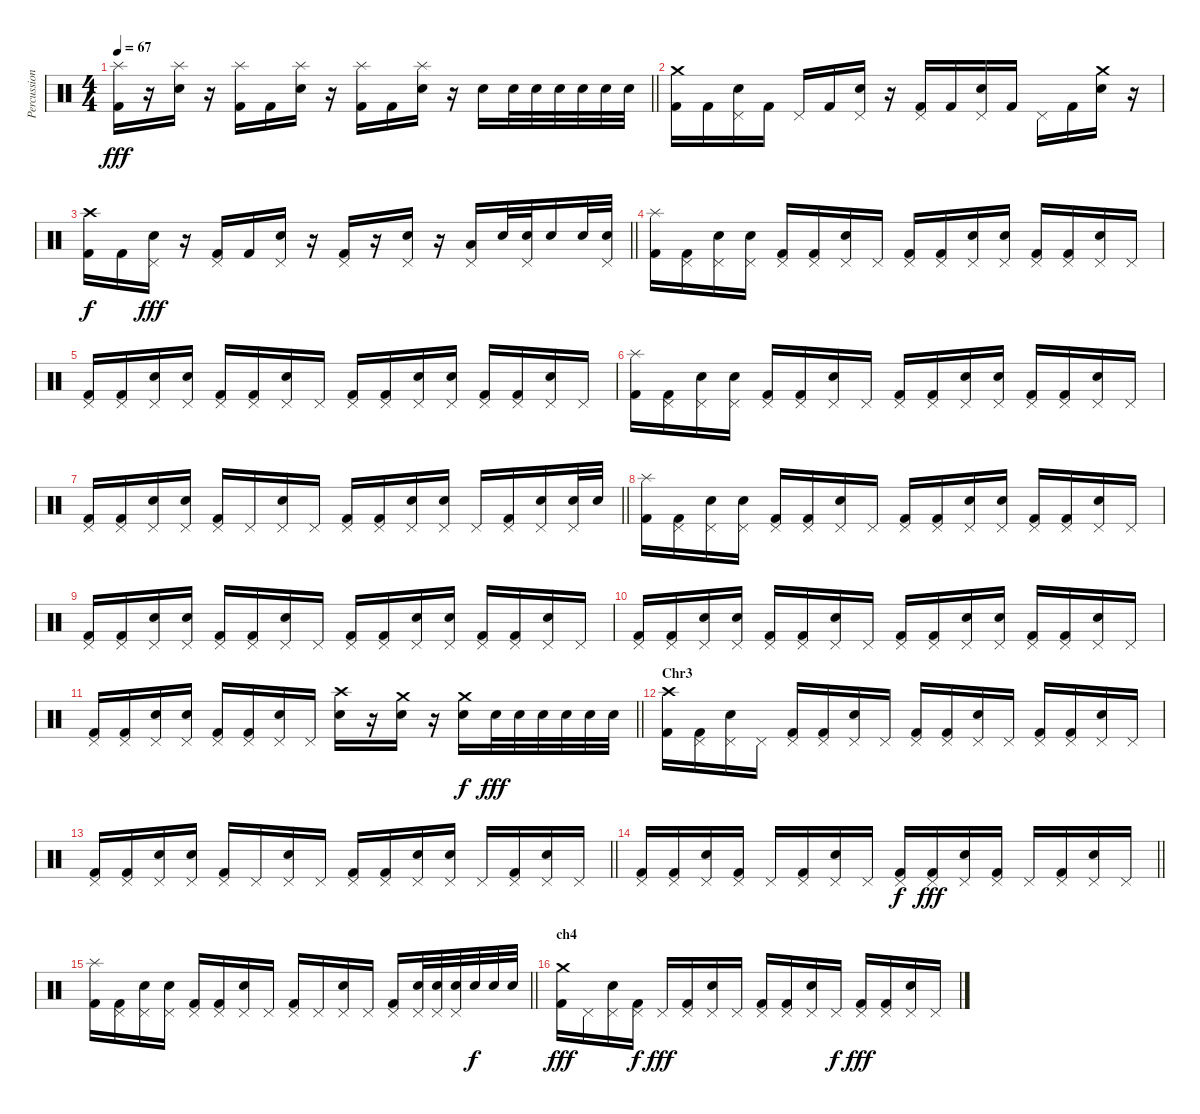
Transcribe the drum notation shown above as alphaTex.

\track ("Percussion" "Percussion") {instrument percussion}
\staff {score}
\articulation defaults
\ts (4 4)
\tempo 67
\clef neutral
\barLineRight lightlight
\ks c
("Splash (hit)" "Kick (hit) 2").16{dy fff} r.16 ("Splash (hit)" "Snare (hit) 2").16 r.16 ("Splash (hit)" "Kick (hit) 2").16 "Kick (hit) 2".16 ("Splash (hit)" "Snare (hit) 2").16 r.16 ("Splash (hit)" "Kick (hit) 2").16 "Kick (hit) 2".16 ("Splash (hit)" "Snare (hit) 2").16 r.16 "Snare (hit) 2".16 "Snare (hit) 2".32 "Snare (hit) 2".32 "Snare (hit) 2".32 "Snare (hit) 2".32 "Snare (hit) 2".32 "Snare (hit) 2".32 |
\section ("" "")
("Crash medium (hit)" "Kick (hit) 2").16 "Kick (hit) 2".16 ("Pedal Hi-Hat (hit)" "Snare (hit) 2").16 "Kick (hit) 2".16 "Pedal Hi-Hat (hit)".16 "Kick (hit) 2".16 ("Pedal Hi-Hat (hit)" "Snare (hit) 2").16 r.16 ("Pedal Hi-Hat (hit)" "Kick (hit) 2").16 "Kick (hit) 2".16 ("Pedal Hi-Hat (hit)" "Snare (hit) 2").16 "Kick (hit) 2".16 "Pedal Hi-Hat (hit)".16 "Kick (hit) 2".16 ("Crash medium (hit)" "Snare (hit) 2").16 r.16 |
\barLineRight lightlight
("Crash high (hit)" "Kick (hit) 2").16{dy f} "Kick (hit) 2".16 ("Pedal Hi-Hat (hit)" "Snare (hit) 2").16{dy fff} r.16 ("Pedal Hi-Hat (hit)" "Kick (hit) 2").16 "Kick (hit) 2".16 ("Pedal Hi-Hat (hit)" "Snare (hit) 2").16 r.16 ("Pedal Hi-Hat (hit)" "Kick (hit) 2").16 r.16 ("Pedal Hi-Hat (hit)" "Snare (hit) 2").16 r.16 ("Pedal Hi-Hat (hit)" "Low Tom (hit)").16 "Snare (hit) 2".32 ("Pedal Hi-Hat (hit)" "Snare (hit) 2").32 "Snare (hit) 2".16 "Snare (hit) 2".32 ("Pedal Hi-Hat (hit)" "Snare (hit) 2").32 |
\section ("" "")
("Splash (hit)" "Kick (hit) 2").16 ("Pedal Hi-Hat (hit)" "Kick (hit) 2").16 ("Pedal Hi-Hat (hit)" "Snare (hit) 2").16 ("Pedal Hi-Hat (hit)" "Snare (hit) 2").16 ("Pedal Hi-Hat (hit)" "Kick (hit) 2").16 ("Pedal Hi-Hat (hit)" "Kick (hit) 2").16 ("Pedal Hi-Hat (hit)" "Snare (hit) 2").16 "Pedal Hi-Hat (hit)".16 ("Pedal Hi-Hat (hit)" "Kick (hit) 2").16 ("Pedal Hi-Hat (hit)" "Kick (hit) 2").16 ("Pedal Hi-Hat (hit)" "Snare (hit) 2").16 ("Pedal Hi-Hat (hit)" "Snare (hit) 2").16 ("Pedal Hi-Hat (hit)" "Kick (hit) 2").16 ("Pedal Hi-Hat (hit)" "Kick (hit) 2").16 ("Pedal Hi-Hat (hit)" "Snare (hit) 2").16 "Pedal Hi-Hat (hit)".16 |
("Pedal Hi-Hat (hit)" "Kick (hit) 2").16 ("Pedal Hi-Hat (hit)" "Kick (hit) 2").16 ("Pedal Hi-Hat (hit)" "Snare (hit) 2").16 ("Pedal Hi-Hat (hit)" "Snare (hit) 2").16 ("Pedal Hi-Hat (hit)" "Kick (hit) 2").16 ("Pedal Hi-Hat (hit)" "Kick (hit) 2").16 ("Pedal Hi-Hat (hit)" "Snare (hit) 2").16 "Pedal Hi-Hat (hit)".16 ("Pedal Hi-Hat (hit)" "Kick (hit) 2").16 ("Pedal Hi-Hat (hit)" "Kick (hit) 2").16 ("Pedal Hi-Hat (hit)" "Snare (hit) 2").16 ("Pedal Hi-Hat (hit)" "Snare (hit) 2").16 ("Pedal Hi-Hat (hit)" "Kick (hit) 2").16 ("Pedal Hi-Hat (hit)" "Kick (hit) 2").16 ("Pedal Hi-Hat (hit)" "Snare (hit) 2").16 "Pedal Hi-Hat (hit)".16 |
("Splash (hit)" "Kick (hit) 2").16 ("Pedal Hi-Hat (hit)" "Kick (hit) 2").16 ("Pedal Hi-Hat (hit)" "Snare (hit) 2").16 ("Pedal Hi-Hat (hit)" "Snare (hit) 2").16 ("Pedal Hi-Hat (hit)" "Kick (hit) 2").16 ("Pedal Hi-Hat (hit)" "Kick (hit) 2").16 ("Pedal Hi-Hat (hit)" "Snare (hit) 2").16 "Pedal Hi-Hat (hit)".16 ("Pedal Hi-Hat (hit)" "Kick (hit) 2").16 ("Pedal Hi-Hat (hit)" "Kick (hit) 2").16 ("Pedal Hi-Hat (hit)" "Snare (hit) 2").16 ("Pedal Hi-Hat (hit)" "Snare (hit) 2").16 ("Pedal Hi-Hat (hit)" "Kick (hit) 2").16 ("Pedal Hi-Hat (hit)" "Kick (hit) 2").16 ("Pedal Hi-Hat (hit)" "Snare (hit) 2").16 "Pedal Hi-Hat (hit)".16 |
\barLineRight lightlight
("Pedal Hi-Hat (hit)" "Kick (hit) 2").16 ("Pedal Hi-Hat (hit)" "Kick (hit) 2").16 ("Pedal Hi-Hat (hit)" "Snare (hit) 2").16 ("Pedal Hi-Hat (hit)" "Snare (hit) 2").16 ("Pedal Hi-Hat (hit)" "Kick (hit) 2").16 "Pedal Hi-Hat (hit)".16 ("Pedal Hi-Hat (hit)" "Snare (hit) 2").16 "Pedal Hi-Hat (hit)".16 ("Pedal Hi-Hat (hit)" "Kick (hit) 2").16 ("Pedal Hi-Hat (hit)" "Kick (hit) 2").16 ("Pedal Hi-Hat (hit)" "Snare (hit) 2").16 ("Pedal Hi-Hat (hit)" "Snare (hit) 2").16 "Pedal Hi-Hat (hit)".16 ("Pedal Hi-Hat (hit)" "Kick (hit) 2").16 ("Pedal Hi-Hat (hit)" "Snare (hit) 2").16 ("Pedal Hi-Hat (hit)" "Snare (hit) 2").32 "Snare (hit) 2".32 |
("Splash (hit)" "Kick (hit) 2").16 ("Pedal Hi-Hat (hit)" "Kick (hit) 2").16 ("Pedal Hi-Hat (hit)" "Snare (hit) 2").16 ("Pedal Hi-Hat (hit)" "Snare (hit) 2").16 ("Pedal Hi-Hat (hit)" "Kick (hit) 2").16 ("Pedal Hi-Hat (hit)" "Kick (hit) 2").16 ("Pedal Hi-Hat (hit)" "Snare (hit) 2").16 "Pedal Hi-Hat (hit)".16 ("Pedal Hi-Hat (hit)" "Kick (hit) 2").16 ("Pedal Hi-Hat (hit)" "Kick (hit) 2").16 ("Pedal Hi-Hat (hit)" "Snare (hit) 2").16 ("Pedal Hi-Hat (hit)" "Snare (hit) 2").16 ("Pedal Hi-Hat (hit)" "Kick (hit) 2").16 ("Pedal Hi-Hat (hit)" "Kick (hit) 2").16 ("Pedal Hi-Hat (hit)" "Snare (hit) 2").16 "Pedal Hi-Hat (hit)".16 |
("Pedal Hi-Hat (hit)" "Kick (hit) 2").16 ("Pedal Hi-Hat (hit)" "Kick (hit) 2").16 ("Pedal Hi-Hat (hit)" "Snare (hit) 2").16 ("Pedal Hi-Hat (hit)" "Snare (hit) 2").16 ("Pedal Hi-Hat (hit)" "Kick (hit) 2").16 ("Pedal Hi-Hat (hit)" "Kick (hit) 2").16 ("Pedal Hi-Hat (hit)" "Snare (hit) 2").16 "Pedal Hi-Hat (hit)".16 ("Pedal Hi-Hat (hit)" "Kick (hit) 2").16 ("Pedal Hi-Hat (hit)" "Kick (hit) 2").16 ("Pedal Hi-Hat (hit)" "Snare (hit) 2").16 ("Pedal Hi-Hat (hit)" "Snare (hit) 2").16 ("Pedal Hi-Hat (hit)" "Kick (hit) 2").16 ("Pedal Hi-Hat (hit)" "Kick (hit) 2").16 ("Pedal Hi-Hat (hit)" "Snare (hit) 2").16 "Pedal Hi-Hat (hit)".16 |
("Pedal Hi-Hat (hit)" "Kick (hit) 2").16 ("Pedal Hi-Hat (hit)" "Kick (hit) 2").16 ("Pedal Hi-Hat (hit)" "Snare (hit) 2").16 ("Pedal Hi-Hat (hit)" "Snare (hit) 2").16 ("Pedal Hi-Hat (hit)" "Kick (hit) 2").16 ("Pedal Hi-Hat (hit)" "Kick (hit) 2").16 ("Pedal Hi-Hat (hit)" "Snare (hit) 2").16 "Pedal Hi-Hat (hit)".16 ("Pedal Hi-Hat (hit)" "Kick (hit) 2").16 ("Pedal Hi-Hat (hit)" "Kick (hit) 2").16 ("Pedal Hi-Hat (hit)" "Snare (hit) 2").16 ("Pedal Hi-Hat (hit)" "Snare (hit) 2").16 ("Pedal Hi-Hat (hit)" "Kick (hit) 2").16 ("Pedal Hi-Hat (hit)" "Kick (hit) 2").16 ("Pedal Hi-Hat (hit)" "Snare (hit) 2").16 "Pedal Hi-Hat (hit)".16 |
\barLineRight lightlight
("Pedal Hi-Hat (hit)" "Kick (hit) 2").16 ("Pedal Hi-Hat (hit)" "Kick (hit) 2").16 ("Pedal Hi-Hat (hit)" "Snare (hit) 2").16 ("Pedal Hi-Hat (hit)" "Snare (hit) 2").16 ("Pedal Hi-Hat (hit)" "Kick (hit) 2").16 ("Pedal Hi-Hat (hit)" "Kick (hit) 2").16 ("Pedal Hi-Hat (hit)" "Snare (hit) 2").16 "Pedal Hi-Hat (hit)".16 ("Crash high (hit)" "Snare (hit) 2").16 r.16 ("Crash medium (hit)" "Snare (hit) 2").16 r.16 ("Crash medium (hit)" "Snare (hit) 2").16{dy f} "Snare (hit) 2".32{dy fff} "Snare (hit) 2".32 "Snare (hit) 2".32 "Snare (hit) 2".32 "Snare (hit) 2".32 "Snare (hit) 2".32 |
\section ("" "Chr3")
("Crash high (hit)" "Kick (hit) 2").16 ("Pedal Hi-Hat (hit)" "Kick (hit) 2").16 ("Pedal Hi-Hat (hit)" "Snare (hit) 2").16 "Pedal Hi-Hat (hit)".16 ("Pedal Hi-Hat (hit)" "Kick (hit) 2").16 ("Pedal Hi-Hat (hit)" "Kick (hit) 2").16 ("Pedal Hi-Hat (hit)" "Snare (hit) 2").16 "Pedal Hi-Hat (hit)".16 ("Pedal Hi-Hat (hit)" "Kick (hit) 2").16 ("Pedal Hi-Hat (hit)" "Kick (hit) 2").16 ("Pedal Hi-Hat (hit)" "Snare (hit) 2").16 "Pedal Hi-Hat (hit)".16 ("Pedal Hi-Hat (hit)" "Kick (hit) 2").16 ("Pedal Hi-Hat (hit)" "Kick (hit) 2").16 ("Pedal Hi-Hat (hit)" "Snare (hit) 2").16 "Pedal Hi-Hat (hit)".16 |
\barLineRight lightlight
("Pedal Hi-Hat (hit)" "Kick (hit) 2").16 ("Pedal Hi-Hat (hit)" "Kick (hit) 2").16 ("Pedal Hi-Hat (hit)" "Snare (hit) 2").16 ("Pedal Hi-Hat (hit)" "Snare (hit) 2").16 ("Pedal Hi-Hat (hit)" "Kick (hit) 2").16 "Pedal Hi-Hat (hit)".16 ("Pedal Hi-Hat (hit)" "Snare (hit) 2").16 "Pedal Hi-Hat (hit)".16 ("Pedal Hi-Hat (hit)" "Kick (hit) 2").16 ("Pedal Hi-Hat (hit)" "Kick (hit) 2").16 ("Pedal Hi-Hat (hit)" "Snare (hit) 2").16 ("Pedal Hi-Hat (hit)" "Snare (hit) 2").16 "Pedal Hi-Hat (hit)".16 ("Pedal Hi-Hat (hit)" "Kick (hit) 2").16 ("Pedal Hi-Hat (hit)" "Snare (hit) 2").16 "Pedal Hi-Hat (hit)".16 |
\barLineRight lightlight
("Pedal Hi-Hat (hit)" "Kick (hit) 2").16 ("Pedal Hi-Hat (hit)" "Kick (hit) 2").16 ("Pedal Hi-Hat (hit)" "Snare (hit) 2").16 ("Pedal Hi-Hat (hit)" "Kick (hit) 2").16 "Pedal Hi-Hat (hit)".16 ("Pedal Hi-Hat (hit)" "Kick (hit) 2").16 ("Pedal Hi-Hat (hit)" "Snare (hit) 2").16 "Pedal Hi-Hat (hit)".16 ("Pedal Hi-Hat (hit)" "Kick (hit) 2").16{dy f} ("Pedal Hi-Hat (hit)" "Kick (hit) 2").16{dy fff} ("Pedal Hi-Hat (hit)" "Snare (hit) 2").16 ("Pedal Hi-Hat (hit)" "Kick (hit) 2").16 "Pedal Hi-Hat (hit)".16 ("Pedal Hi-Hat (hit)" "Kick (hit) 2").16 ("Pedal Hi-Hat (hit)" "Snare (hit) 2").16 "Pedal Hi-Hat (hit)".16 |
\barLineRight lightlight
("Splash (hit)" "Kick (hit) 2").16 ("Pedal Hi-Hat (hit)" "Kick (hit) 2").16 ("Pedal Hi-Hat (hit)" "Snare (hit) 2").16 ("Pedal Hi-Hat (hit)" "Snare (hit) 2").16 ("Pedal Hi-Hat (hit)" "Kick (hit) 2").16 ("Pedal Hi-Hat (hit)" "Kick (hit) 2").16 ("Pedal Hi-Hat (hit)" "Snare (hit) 2").16 "Pedal Hi-Hat (hit)".16 ("Pedal Hi-Hat (hit)" "Kick (hit) 2").16 "Pedal Hi-Hat (hit)".16 ("Pedal Hi-Hat (hit)" "Snare (hit) 2").16 "Pedal Hi-Hat (hit)".16 ("Pedal Hi-Hat (hit)" "Kick (hit) 2").16 ("Pedal Hi-Hat (hit)" "Snare (hit) 2").32 ("Pedal Hi-Hat (hit)" "Snare (hit) 2").32 ("Pedal Hi-Hat (hit)" "Snare (hit) 2").32 "Snare (hit) 2".32{dy f} "Snare (hit) 2".32 "Snare (hit) 2".32 |
\section ("" "ch4")
("Crash medium (hit)" "Kick (hit) 2").16{dy fff} "Pedal Hi-Hat (hit)".16 ("Pedal Hi-Hat (hit)" "Snare (hit) 2").16 ("Pedal Hi-Hat (hit)" "Kick (hit) 2").16{dy f} "Pedal Hi-Hat (hit)".16{dy fff} ("Pedal Hi-Hat (hit)" "Kick (hit) 2").16 ("Pedal Hi-Hat (hit)" "Snare (hit) 2").16 "Pedal Hi-Hat (hit)".16 ("Pedal Hi-Hat (hit)" "Kick (hit) 2").16 ("Pedal Hi-Hat (hit)" "Kick (hit) 2").16 ("Pedal Hi-Hat (hit)" "Snare (hit) 2").16 "Pedal Hi-Hat (hit)".16{dy f} ("Pedal Hi-Hat (hit)" "Kick (hit) 2").16{dy fff} ("Pedal Hi-Hat (hit)" "Kick (hit) 2").16 ("Pedal Hi-Hat (hit)" "Snare (hit) 2").16 "Pedal Hi-Hat (hit)".16
